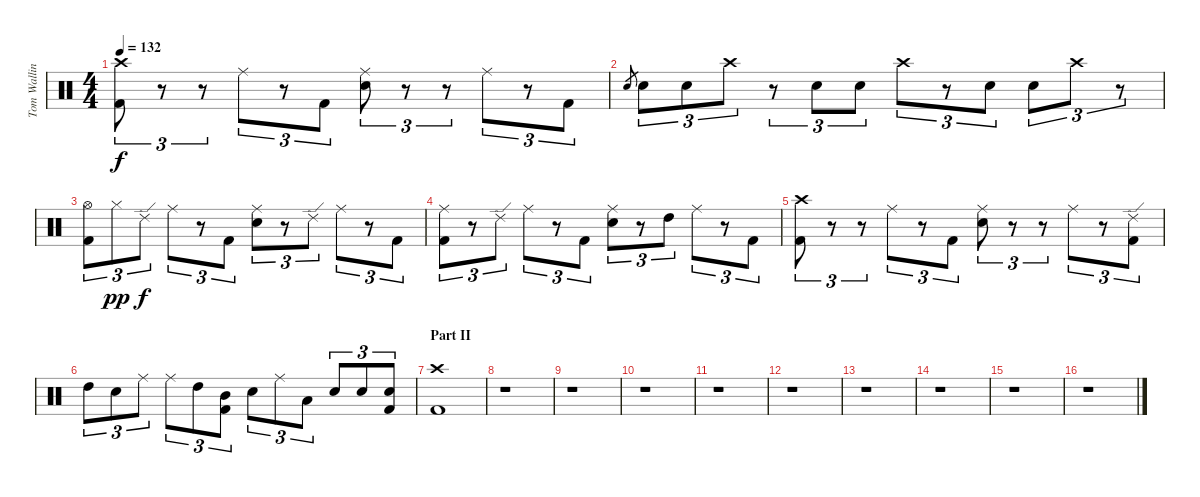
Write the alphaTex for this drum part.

\track ("Tom Walling [Drums]" "Tom Wallin") {instrument percussion}
\staff {score}
\articulation defaults
\ts (4 4)
\tempo 132
\clef neutral
\ks c
("Crash high (hit)" "Kick (hit) 2").8{tu (3 2) dy f} r.8{tu (3 2)} r.8{tu (3 2)} "Ride (middle)".8{tu (3 2)} r.8{tu (3 2)} "Kick (hit) 2".8{tu (3 2)} ("Ride (middle)" "Electric Snare (hit)").8{tu (3 2)} r.8{tu (3 2)} r.8{tu (3 2)} "Ride (middle)".8{tu (3 2)} r.8{tu (3 2)} "Kick (hit) 2".8{tu (3 2)} |
"Electric Snare (hit)".8{gr} "Electric Snare (hit)".8{tu (3 2)} "Electric Snare (hit)".8{tu (3 2)} "Crash high (hit)".8{tu (3 2)} r.8{tu (3 2)} "Electric Snare (hit)".8{tu (3 2)} "Electric Snare (hit)".8{tu (3 2)} "Crash high (hit)".8{tu (3 2)} r.8{tu (3 2)} "Electric Snare (hit)".8{tu (3 2)} "Electric Snare (hit)".8{tu (3 2)} "Crash high (hit)".8{tu (3 2)} r.8{tu (3 2)} |
("Hi-Hat (open)" "Kick (hit) 2").8{tu (3 2)} "Hi-Hat (closed)".8{tu (3 2) dy pp} "Ride (edge) 2".8{tu (3 2) dy f} "Ride (middle)".8{tu (3 2)} r.8{tu (3 2)} "Kick (hit) 2".8{tu (3 2)} ("Ride (middle)" "Electric Snare (hit)").8{tu (3 2)} r.8{tu (3 2)} "Ride (edge) 2".8{tu (3 2)} "Ride (middle)".8{tu (3 2)} r.8{tu (3 2)} "Kick (hit) 2".8{tu (3 2)} |
("Ride (middle)" "Kick (hit) 2").8{tu (3 2)} r.8{tu (3 2)} "Ride (edge) 2".8{tu (3 2)} "Ride (middle)".8{tu (3 2)} r.8{tu (3 2)} "Kick (hit) 2".8{tu (3 2)} ("Ride (middle)" "Electric Snare (hit)").8{tu (3 2)} r.8{tu (3 2)} "High Tom (hit)".8{tu (3 2)} "Ride (middle)".8{tu (3 2)} r.8{tu (3 2)} "Kick (hit) 2".8{tu (3 2)} |
("Crash high (hit)" "Kick (hit) 2").8{tu (3 2)} r.8{tu (3 2)} r.8{tu (3 2)} "Ride (middle)".8{tu (3 2)} r.8{tu (3 2)} "Kick (hit) 2".8{tu (3 2)} ("Ride (middle)" "Electric Snare (hit)").8{tu (3 2)} r.8{tu (3 2)} r.8{tu (3 2)} "Ride (middle)".8{tu (3 2)} r.8{tu (3 2)} ("Ride (edge) 2" "Kick (hit) 2").8{tu (3 2)} |
"High Tom (hit)".8{tu (3 2)} "Electric Snare (hit)".8{tu (3 2)} "Ride (middle)".8{tu (3 2)} "Ride (middle)".8{tu (3 2)} "High Tom (hit)".8{tu (3 2)} ("Mid Tom (hit)" "Kick (hit) 2").8{tu (3 2)} "Electric Snare (hit)".8{tu (3 2)} "Ride (middle)".8{tu (3 2)} "Low Tom (hit)".8{tu (3 2)} "Electric Snare (hit)".8{tu (3 2)} "Electric Snare (hit)".8{tu (3 2)} ("Electric Snare (hit)" "Kick (hit) 2").8{tu (3 2)} |
\section ("" "Part II")
("Crash high (hit)" "Kick (hit) 2").1 |
r.1 |
r.1 |
r.1 |
r.1 |
r.1 |
r.1 |
r.1 |
r.1 |
r.1
